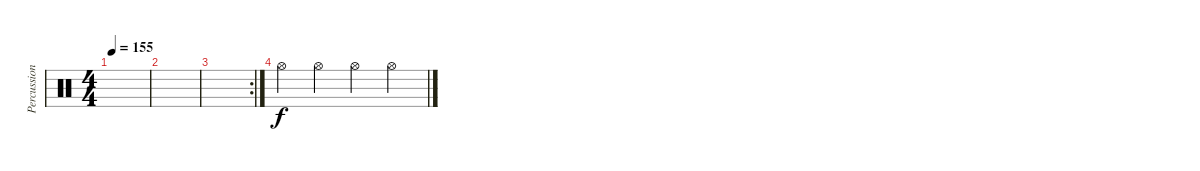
\track ("Percussion" "Percussion") {instrument percussion}
\staff {score}
\articulation defaults
\ts (4 4)
\tempo 155
\clef neutral
\ks c
|
|
\rc 2
|
"Hi-Hat (open)".4 "Hi-Hat (open)".4 "Hi-Hat (open)".4 "Hi-Hat (open)".4
